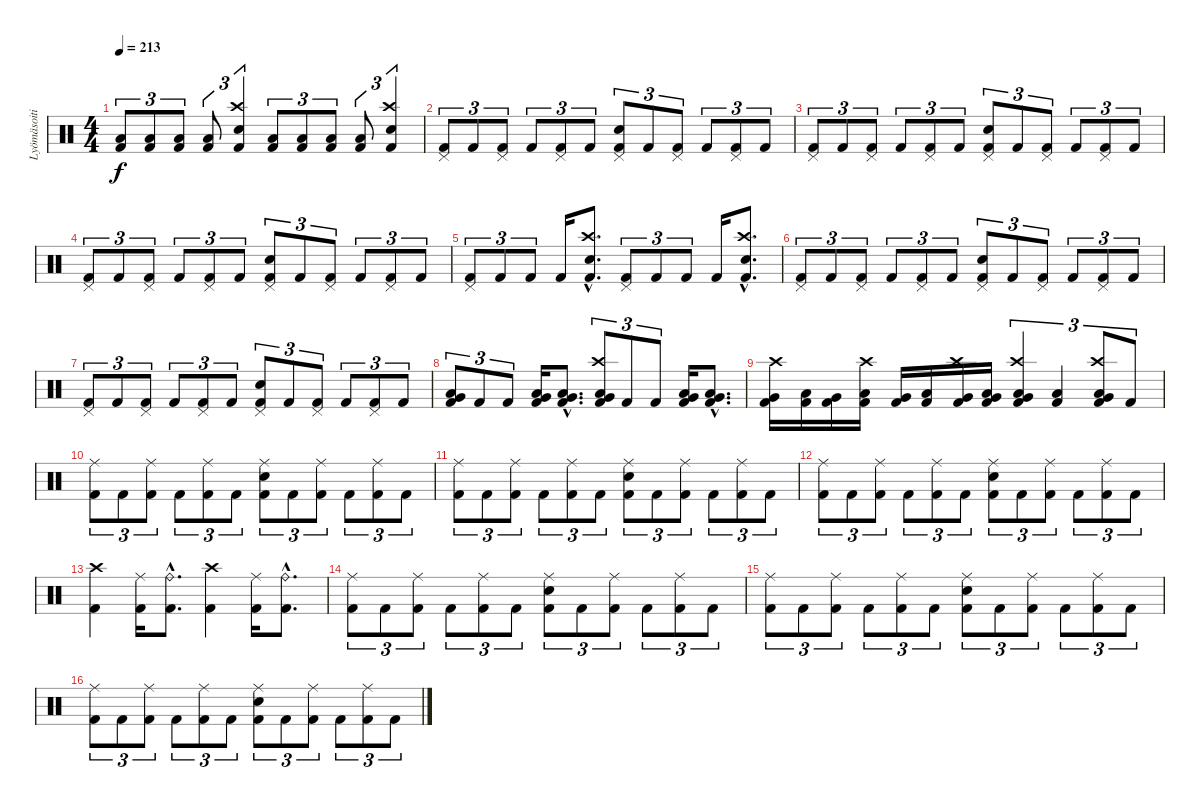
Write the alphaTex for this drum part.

\track ("Lyömäsoitin" "Lyömäsoiti") {instrument percussion}
\staff {score}
\articulation defaults
\ts (4 4)
\tempo 213
\clef neutral
\ks c
("Low Tom (hit)" "Kick (hit) 2").8{tu (3 2) dy f} ("Low Floor Tom (hit)" "Kick (hit) 2").8{tu (3 2)} ("Low Floor Tom (hit)" "Kick (hit) 2").8{tu (3 2)} ("Low Floor Tom (hit)" "Kick (hit) 2").8{tu (3 2)} ("Crash high (hit)" "Electric Snare (hit)" "Kick (hit) 2").4{tu (3 2)} ("Low Tom (hit)" "Kick (hit) 2").8{tu (3 2)} ("Low Floor Tom (hit)" "Kick (hit) 2").8{tu (3 2)} ("Low Floor Tom (hit)" "Kick (hit) 2").8{tu (3 2)} ("Low Floor Tom (hit)" "Kick (hit) 2").8{tu (3 2)} ("Crash high (hit)" "Electric Snare (hit)" "Kick (hit) 2").4{tu (3 2)} |
("Pedal Hi-Hat (hit)" "Kick (hit) 2").8{tu (3 2)} "Kick (hit) 2".8{tu (3 2)} ("Pedal Hi-Hat (hit)" "Kick (hit) 2").8{tu (3 2)} "Kick (hit) 2".8{tu (3 2)} ("Pedal Hi-Hat (hit)" "Kick (hit) 2").8{tu (3 2)} "Kick (hit) 2".8{tu (3 2)} ("Pedal Hi-Hat (hit)" "Electric Snare (hit)" "Kick (hit) 2").8{tu (3 2)} "Kick (hit) 2".8{tu (3 2)} ("Pedal Hi-Hat (hit)" "Kick (hit) 2").8{tu (3 2)} "Kick (hit) 2".8{tu (3 2)} ("Pedal Hi-Hat (hit)" "Kick (hit) 2").8{tu (3 2)} "Kick (hit) 2".8{tu (3 2)} |
("Pedal Hi-Hat (hit)" "Kick (hit) 2").8{tu (3 2)} "Kick (hit) 2".8{tu (3 2)} ("Pedal Hi-Hat (hit)" "Kick (hit) 2").8{tu (3 2)} "Kick (hit) 2".8{tu (3 2)} ("Pedal Hi-Hat (hit)" "Kick (hit) 2").8{tu (3 2)} "Kick (hit) 2".8{tu (3 2)} ("Pedal Hi-Hat (hit)" "Electric Snare (hit)" "Kick (hit) 2").8{tu (3 2)} "Kick (hit) 2".8{tu (3 2)} ("Pedal Hi-Hat (hit)" "Kick (hit) 2").8{tu (3 2)} "Kick (hit) 2".8{tu (3 2)} ("Pedal Hi-Hat (hit)" "Kick (hit) 2").8{tu (3 2)} "Kick (hit) 2".8{tu (3 2)} |
("Pedal Hi-Hat (hit)" "Kick (hit) 2").8{tu (3 2)} "Kick (hit) 2".8{tu (3 2)} ("Pedal Hi-Hat (hit)" "Kick (hit) 2").8{tu (3 2)} "Kick (hit) 2".8{tu (3 2)} ("Pedal Hi-Hat (hit)" "Kick (hit) 2").8{tu (3 2)} "Kick (hit) 2".8{tu (3 2)} ("Pedal Hi-Hat (hit)" "Electric Snare (hit)" "Kick (hit) 2").8{tu (3 2)} "Kick (hit) 2".8{tu (3 2)} ("Pedal Hi-Hat (hit)" "Kick (hit) 2").8{tu (3 2)} "Kick (hit) 2".8{tu (3 2)} ("Pedal Hi-Hat (hit)" "Kick (hit) 2").8{tu (3 2)} "Kick (hit) 2".8{tu (3 2)} |
("Pedal Hi-Hat (hit)" "Kick (hit) 2").8{tu (3 2)} "Kick (hit) 2".8{tu (3 2)} "Kick (hit) 2".8{tu (3 2)} "Kick (hit) 2".16 ("Crash high (hit)"{hac} "Electric Snare (hit)"{hac} "Kick (hit) 2"{hac}).8{d} ("Pedal Hi-Hat (hit)" "Kick (hit) 2").8{tu (3 2)} "Kick (hit) 2".8{tu (3 2)} "Kick (hit) 2".8{tu (3 2)} "Kick (hit) 2".16 ("Crash high (hit)"{hac} "Electric Snare (hit)"{hac} "Kick (hit) 2"{hac}).8{d} |
("Pedal Hi-Hat (hit)" "Kick (hit) 2").8{tu (3 2)} "Kick (hit) 2".8{tu (3 2)} ("Pedal Hi-Hat (hit)" "Kick (hit) 2").8{tu (3 2)} "Kick (hit) 2".8{tu (3 2)} ("Pedal Hi-Hat (hit)" "Kick (hit) 2").8{tu (3 2)} "Kick (hit) 2".8{tu (3 2)} ("Pedal Hi-Hat (hit)" "Electric Snare (hit)" "Kick (hit) 2").8{tu (3 2)} "Kick (hit) 2".8{tu (3 2)} ("Pedal Hi-Hat (hit)" "Kick (hit) 2").8{tu (3 2)} "Kick (hit) 2".8{tu (3 2)} ("Pedal Hi-Hat (hit)" "Kick (hit) 2").8{tu (3 2)} "Kick (hit) 2".8{tu (3 2)} |
("Pedal Hi-Hat (hit)" "Kick (hit) 2").8{tu (3 2)} "Kick (hit) 2".8{tu (3 2)} ("Pedal Hi-Hat (hit)" "Kick (hit) 2").8{tu (3 2)} "Kick (hit) 2".8{tu (3 2)} ("Pedal Hi-Hat (hit)" "Kick (hit) 2").8{tu (3 2)} "Kick (hit) 2".8{tu (3 2)} ("Pedal Hi-Hat (hit)" "Electric Snare (hit)" "Kick (hit) 2").8{tu (3 2)} "Kick (hit) 2".8{tu (3 2)} ("Pedal Hi-Hat (hit)" "Kick (hit) 2").8{tu (3 2)} "Kick (hit) 2".8{tu (3 2)} ("Pedal Hi-Hat (hit)" "Kick (hit) 2").8{tu (3 2)} "Kick (hit) 2".8{tu (3 2)} |
("Low Floor Tom (hit)" "Very Low Tom (hit)" "Kick (hit) 2").8{tu (3 2)} "Kick (hit) 2".8{tu (3 2)} "Kick (hit) 2".8{tu (3 2)} ("Low Floor Tom (hit)" "Very Low Tom (hit)" "Kick (hit) 2").16 ("Low Floor Tom (hit)"{hac} "Very Low Tom (hit)"{hac} "Kick (hit) 2"{hac}).8{d} ("Crash high (hit)" "Low Tom (hit)" "Very Low Tom (hit)" "Kick (hit) 2").8{tu (3 2)} "Kick (hit) 2".8{tu (3 2)} "Kick (hit) 2".8{tu (3 2)} ("Very Low Tom (hit)" "Low Tom (hit)" "Kick (hit) 2").16 ("Low Floor Tom (hit)"{hac} "Very Low Tom (hit)"{hac} "Kick (hit) 2"{hac}).8{d} |
("Crash high (hit)" "Very Low Tom (hit)" "Kick (hit) 2").16 ("Low Floor Tom (hit)" "Kick (hit) 2").16 ("Very Low Tom (hit)" "Kick (hit) 2").16 ("Crash high (hit)" "Low Floor Tom (hit)" "Kick (hit) 2").16 ("Very Low Tom (hit)" "Kick (hit) 2").16 ("Low Floor Tom (hit)" "Kick (hit) 2").16 ("Crash high (hit)" "Very Low Tom (hit)" "Kick (hit) 2").16 ("Low Tom (hit)" "Very Low Tom (hit)" "Kick (hit) 2").16 ("Crash high (hit)" "Very Low Tom (hit)" "Low Tom (hit)" "Kick (hit) 2").4{tu (3 2)} ("Low Floor Tom (hit)" "Kick (hit) 2").4{tu (3 2)} ("Crash high (hit)" "Very Low Tom (hit)" "Low Tom (hit)" "Kick (hit) 2").8{tu (3 2)} "Kick (hit) 2".8{tu (3 2)} |
("Ride (middle)" "Kick (hit) 2").8{tu (3 2)} "Kick (hit) 2".8{tu (3 2)} ("Ride (middle)" "Kick (hit) 2").8{tu (3 2)} "Kick (hit) 2".8{tu (3 2)} ("Ride (middle)" "Kick (hit) 2").8{tu (3 2)} "Kick (hit) 2".8{tu (3 2)} ("Ride (middle)" "Electric Snare (hit)" "Kick (hit) 2").8{tu (3 2)} "Kick (hit) 2".8{tu (3 2)} ("Ride (middle)" "Kick (hit) 2").8{tu (3 2)} "Kick (hit) 2".8{tu (3 2)} ("Ride (middle)" "Kick (hit) 2").8{tu (3 2)} "Kick (hit) 2".8{tu (3 2)} |
("Ride (middle)" "Kick (hit) 2").8{tu (3 2)} "Kick (hit) 2".8{tu (3 2)} ("Ride (middle)" "Kick (hit) 2").8{tu (3 2)} "Kick (hit) 2".8{tu (3 2)} ("Ride (middle)" "Kick (hit) 2").8{tu (3 2)} "Kick (hit) 2".8{tu (3 2)} ("Ride (middle)" "Electric Snare (hit)" "Kick (hit) 2").8{tu (3 2)} "Kick (hit) 2".8{tu (3 2)} ("Ride (middle)" "Kick (hit) 2").8{tu (3 2)} "Kick (hit) 2".8{tu (3 2)} ("Ride (middle)" "Kick (hit) 2").8{tu (3 2)} "Kick (hit) 2".8{tu (3 2)} |
("Ride (middle)" "Kick (hit) 2").8{tu (3 2)} "Kick (hit) 2".8{tu (3 2)} ("Ride (middle)" "Kick (hit) 2").8{tu (3 2)} "Kick (hit) 2".8{tu (3 2)} ("Ride (middle)" "Kick (hit) 2").8{tu (3 2)} "Kick (hit) 2".8{tu (3 2)} ("Ride (middle)" "Electric Snare (hit)" "Kick (hit) 2").8{tu (3 2)} "Kick (hit) 2".8{tu (3 2)} ("Ride (middle)" "Kick (hit) 2").8{tu (3 2)} "Kick (hit) 2".8{tu (3 2)} ("Ride (middle)" "Kick (hit) 2").8{tu (3 2)} "Kick (hit) 2".8{tu (3 2)} |
("Crash high (hit)" "Kick (hit) 2").4 ("Ride (middle)" "Kick (hit) 2").16 ("Ride (bell)"{hac} "Kick (hit) 2"{hac}).8{d} ("Crash high (hit)" "Kick (hit) 2").4 ("Ride (middle)" "Kick (hit) 2").16 ("Ride (bell)"{hac} "Kick (hit) 2"{hac}).8{d} |
("Ride (middle)" "Kick (hit) 2").8{tu (3 2)} "Kick (hit) 2".8{tu (3 2)} ("Ride (middle)" "Kick (hit) 2").8{tu (3 2)} "Kick (hit) 2".8{tu (3 2)} ("Ride (middle)" "Kick (hit) 2").8{tu (3 2)} "Kick (hit) 2".8{tu (3 2)} ("Ride (middle)" "Electric Snare (hit)" "Kick (hit) 2").8{tu (3 2)} "Kick (hit) 2".8{tu (3 2)} ("Ride (middle)" "Kick (hit) 2").8{tu (3 2)} "Kick (hit) 2".8{tu (3 2)} ("Ride (middle)" "Kick (hit) 2").8{tu (3 2)} "Kick (hit) 2".8{tu (3 2)} |
("Ride (middle)" "Kick (hit) 2").8{tu (3 2)} "Kick (hit) 2".8{tu (3 2)} ("Ride (middle)" "Kick (hit) 2").8{tu (3 2)} "Kick (hit) 2".8{tu (3 2)} ("Ride (middle)" "Kick (hit) 2").8{tu (3 2)} "Kick (hit) 2".8{tu (3 2)} ("Ride (middle)" "Electric Snare (hit)" "Kick (hit) 2").8{tu (3 2)} "Kick (hit) 2".8{tu (3 2)} ("Ride (middle)" "Kick (hit) 2").8{tu (3 2)} "Kick (hit) 2".8{tu (3 2)} ("Ride (middle)" "Kick (hit) 2").8{tu (3 2)} "Kick (hit) 2".8{tu (3 2)} |
("Ride (middle)" "Kick (hit) 2").8{tu (3 2)} "Kick (hit) 2".8{tu (3 2)} ("Ride (middle)" "Kick (hit) 2").8{tu (3 2)} "Kick (hit) 2".8{tu (3 2)} ("Ride (middle)" "Kick (hit) 2").8{tu (3 2)} "Kick (hit) 2".8{tu (3 2)} ("Ride (middle)" "Electric Snare (hit)" "Kick (hit) 2").8{tu (3 2)} "Kick (hit) 2".8{tu (3 2)} ("Ride (middle)" "Kick (hit) 2").8{tu (3 2)} "Kick (hit) 2".8{tu (3 2)} ("Ride (middle)" "Kick (hit) 2").8{tu (3 2)} "Kick (hit) 2".8{tu (3 2)}
